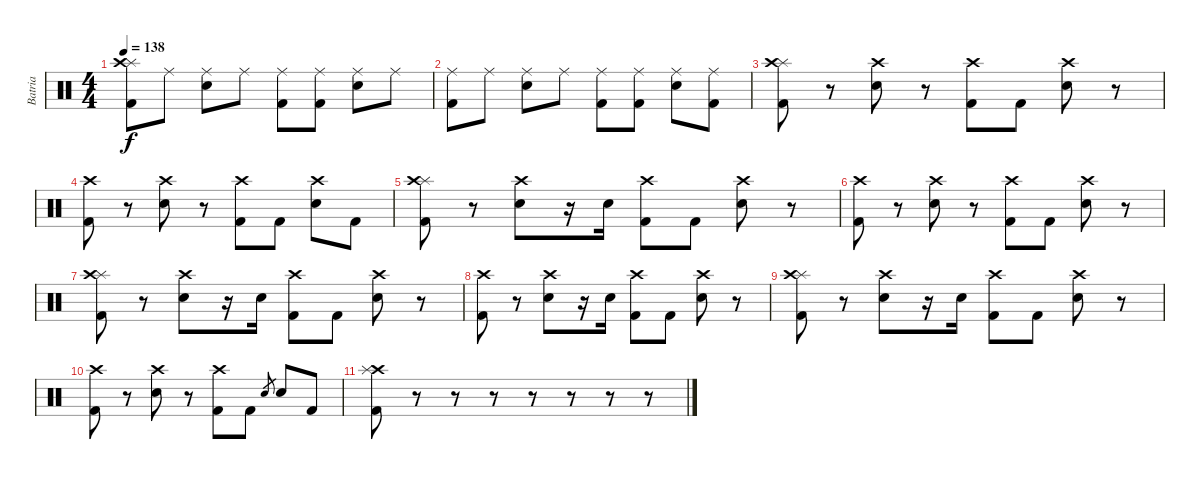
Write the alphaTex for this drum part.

\track ("Batria" "Batria") {instrument percussion}
\staff {score}
\articulation defaults
\ts (4 4)
\tempo 138
\clef neutral
\ks c
("Splash (hit)" "Crash high (hit)" "Kick (hit) 2").8{dy f} "Ride (middle)".8 ("Ride (middle)" "Electric Snare (hit)").8 "Ride (middle)".8 ("Ride (middle)" "Kick (hit) 2").8 ("Ride (middle)" "Kick (hit) 2").8 ("Ride (middle)" "Electric Snare (hit)").8 "Ride (middle)".8 |
("Ride (middle)" "Kick (hit) 2").8 "Ride (middle)".8 ("Ride (middle)" "Electric Snare (hit)").8 "Ride (middle)".8 ("Ride (middle)" "Kick (hit) 2").8 ("Ride (middle)" "Kick (hit) 2").8 ("Ride (middle)" "Electric Snare (hit)").8 ("Ride (middle)" "Kick (hit) 2").8 |
("Splash (hit)" "Crash high (hit)" "Kick (hit) 2").8 r.8 ("Crash high (hit)" "Electric Snare (hit)").8 r.8 ("Crash high (hit)" "Kick (hit) 2").8 "Kick (hit) 2".8 ("Crash high (hit)" "Electric Snare (hit)").8 r.8 |
("Crash high (hit)" "Kick (hit) 2").8 r.8 ("Crash high (hit)" "Electric Snare (hit)").8 r.8 ("Crash high (hit)" "Kick (hit) 2").8 "Kick (hit) 2".8 ("Crash high (hit)" "Electric Snare (hit)").8 "Kick (hit) 2".8 |
("Splash (hit)" "Crash high (hit)" "Kick (hit) 2").8 r.8 ("Crash high (hit)" "Electric Snare (hit)").8 r.16 "Electric Snare (hit)".16 ("Crash high (hit)" "Kick (hit) 2").8 "Kick (hit) 2".8 ("Crash high (hit)" "Electric Snare (hit)").8 r.8 |
("Crash high (hit)" "Kick (hit) 2").8 r.8 ("Crash high (hit)" "Electric Snare (hit)").8 r.8 ("Crash high (hit)" "Kick (hit) 2").8 "Kick (hit) 2".8 ("Crash high (hit)" "Electric Snare (hit)").8 r.8 |
("Splash (hit)" "Crash high (hit)" "Kick (hit) 2").8 r.8 ("Crash high (hit)" "Electric Snare (hit)").8 r.16 "Electric Snare (hit)".16 ("Crash high (hit)" "Kick (hit) 2").8 "Kick (hit) 2".8 ("Crash high (hit)" "Electric Snare (hit)").8 r.8 |
("Crash high (hit)" "Kick (hit) 2").8 r.8 ("Crash high (hit)" "Electric Snare (hit)").8 r.16 "Electric Snare (hit)".16 ("Crash high (hit)" "Kick (hit) 2").8 "Kick (hit) 2".8 ("Crash high (hit)" "Electric Snare (hit)").8 r.8 |
("Splash (hit)" "Crash high (hit)" "Kick (hit) 2").8 r.8 ("Crash high (hit)" "Electric Snare (hit)").8 r.16 "Electric Snare (hit)".16 ("Crash high (hit)" "Kick (hit) 2").8 "Kick (hit) 2".8 ("Crash high (hit)" "Electric Snare (hit)").8 r.8 |
("Crash high (hit)" "Kick (hit) 2").8 r.8 ("Crash high (hit)" "Electric Snare (hit)").8 r.8 ("Crash high (hit)" "Kick (hit) 2").8 "Kick (hit) 2".8 "Electric Snare (hit)".8{gr} "Electric Snare (hit)".8 "Kick (hit) 2".8 |
("Crash high (hit)" "Splash (hit)" "Kick (hit) 2").8 r.8 r.8 r.8 r.8 r.8 r.8 r.8
